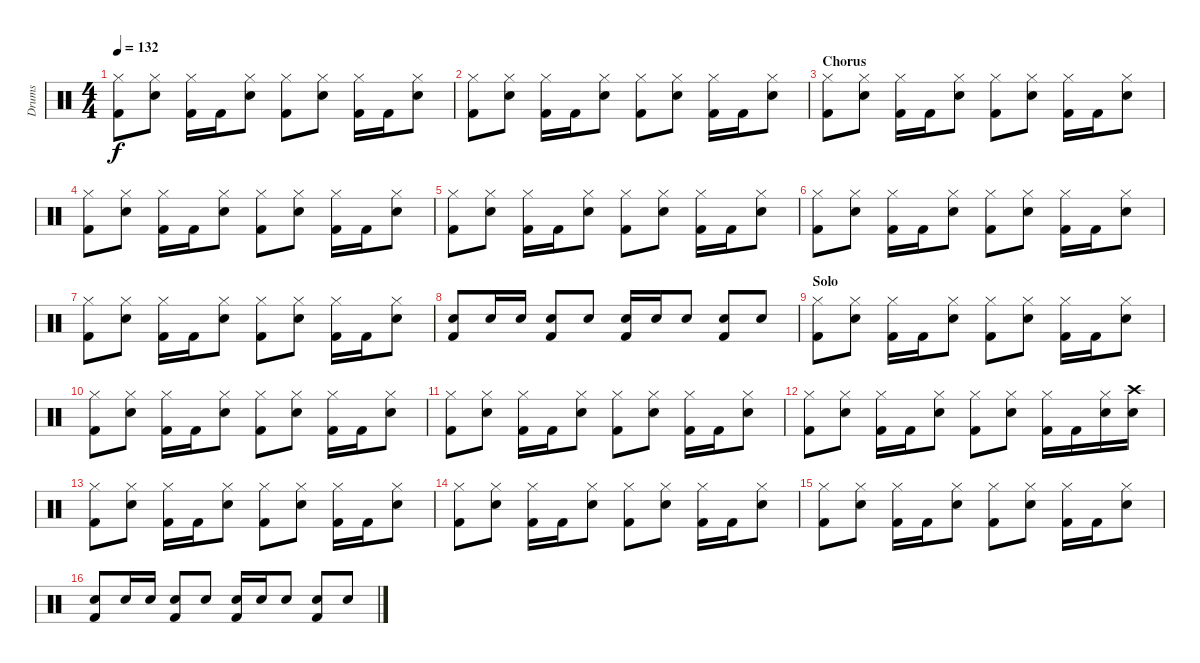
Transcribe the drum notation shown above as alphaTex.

\track ("Drums" "Drums") {instrument percussion}
\staff {score}
\articulation defaults
\ts (4 4)
\tempo 132
\clef neutral
\ks c
("Kick (hit) 2" "Hi-Hat (closed)").8{dy f} ("Snare (hit) 2" "Hi-Hat (closed)").8 ("Kick (hit) 2" "Hi-Hat (closed)").16 "Kick (hit) 2".16 ("Snare (hit) 2" "Hi-Hat (closed)").8 ("Kick (hit) 2" "Hi-Hat (closed)").8 ("Snare (hit) 2" "Hi-Hat (closed)").8 ("Kick (hit) 2" "Hi-Hat (closed)").16 "Kick (hit) 2".16 ("Snare (hit) 2" "Hi-Hat (closed)").8 |
("Kick (hit) 2" "Hi-Hat (closed)").8 ("Snare (hit) 2" "Hi-Hat (closed)").8 ("Kick (hit) 2" "Hi-Hat (closed)").16 "Kick (hit) 2".16 ("Snare (hit) 2" "Hi-Hat (closed)").8 ("Kick (hit) 2" "Hi-Hat (closed)").8 ("Snare (hit) 2" "Hi-Hat (closed)").8 ("Kick (hit) 2" "Hi-Hat (closed)").16 "Kick (hit) 2".16 ("Snare (hit) 2" "Hi-Hat (closed)").8 |
\section ("" "Chorus")
("Kick (hit) 2" "Hi-Hat (closed)").8 ("Snare (hit) 2" "Hi-Hat (closed)").8 ("Kick (hit) 2" "Hi-Hat (closed)").16 "Kick (hit) 2".16 ("Snare (hit) 2" "Hi-Hat (closed)").8 ("Kick (hit) 2" "Hi-Hat (closed)").8 ("Snare (hit) 2" "Hi-Hat (closed)").8 ("Kick (hit) 2" "Hi-Hat (closed)").16 "Kick (hit) 2".16 ("Snare (hit) 2" "Hi-Hat (closed)").8 |
("Kick (hit) 2" "Hi-Hat (closed)").8 ("Snare (hit) 2" "Hi-Hat (closed)").8 ("Kick (hit) 2" "Hi-Hat (closed)").16 "Kick (hit) 2".16 ("Snare (hit) 2" "Hi-Hat (closed)").8 ("Kick (hit) 2" "Hi-Hat (closed)").8 ("Snare (hit) 2" "Hi-Hat (closed)").8 ("Kick (hit) 2" "Hi-Hat (closed)").16 "Kick (hit) 2".16 ("Snare (hit) 2" "Hi-Hat (closed)").8 |
("Kick (hit) 2" "Hi-Hat (closed)").8 ("Snare (hit) 2" "Hi-Hat (closed)").8 ("Kick (hit) 2" "Hi-Hat (closed)").16 "Kick (hit) 2".16 ("Snare (hit) 2" "Hi-Hat (closed)").8 ("Kick (hit) 2" "Hi-Hat (closed)").8 ("Snare (hit) 2" "Hi-Hat (closed)").8 ("Kick (hit) 2" "Hi-Hat (closed)").16 "Kick (hit) 2".16 ("Snare (hit) 2" "Hi-Hat (closed)").8 |
("Kick (hit) 2" "Hi-Hat (closed)").8 ("Snare (hit) 2" "Hi-Hat (closed)").8 ("Kick (hit) 2" "Hi-Hat (closed)").16 "Kick (hit) 2".16 ("Snare (hit) 2" "Hi-Hat (closed)").8 ("Kick (hit) 2" "Hi-Hat (closed)").8 ("Snare (hit) 2" "Hi-Hat (closed)").8 ("Kick (hit) 2" "Hi-Hat (closed)").16 "Kick (hit) 2".16 ("Snare (hit) 2" "Hi-Hat (closed)").8 |
("Kick (hit) 2" "Hi-Hat (closed)").8 ("Snare (hit) 2" "Hi-Hat (closed)").8 ("Kick (hit) 2" "Hi-Hat (closed)").16 "Kick (hit) 2".16 ("Snare (hit) 2" "Hi-Hat (closed)").8 ("Kick (hit) 2" "Hi-Hat (closed)").8 ("Snare (hit) 2" "Hi-Hat (closed)").8 ("Kick (hit) 2" "Hi-Hat (closed)").16 "Kick (hit) 2".16 ("Snare (hit) 2" "Hi-Hat (closed)").8 |
("Snare (hit) 2" "Kick (hit) 2").8 "Snare (hit) 2".16 "Snare (hit) 2".16 ("Snare (hit) 2" "Kick (hit) 2").8 "Snare (hit) 2".8 ("Snare (hit) 2" "Kick (hit) 2").16 "Snare (hit) 2".16 "Snare (hit) 2".8 ("Snare (hit) 2" "Kick (hit) 2").8 "Snare (hit) 2".8 |
\section ("" "Solo")
("Kick (hit) 2" "Hi-Hat (closed)").8 ("Snare (hit) 2" "Hi-Hat (closed)").8 ("Kick (hit) 2" "Hi-Hat (closed)").16 "Kick (hit) 2".16 ("Snare (hit) 2" "Hi-Hat (closed)").8 ("Kick (hit) 2" "Hi-Hat (closed)").8 ("Snare (hit) 2" "Hi-Hat (closed)").8 ("Kick (hit) 2" "Hi-Hat (closed)").16 "Kick (hit) 2".16 ("Snare (hit) 2" "Hi-Hat (closed)").8 |
("Kick (hit) 2" "Hi-Hat (closed)").8 ("Snare (hit) 2" "Hi-Hat (closed)").8 ("Kick (hit) 2" "Hi-Hat (closed)").16 "Kick (hit) 2".16 ("Snare (hit) 2" "Hi-Hat (closed)").8 ("Kick (hit) 2" "Hi-Hat (closed)").8 ("Snare (hit) 2" "Hi-Hat (closed)").8 ("Kick (hit) 2" "Hi-Hat (closed)").16 "Kick (hit) 2".16 ("Snare (hit) 2" "Hi-Hat (closed)").8 |
("Kick (hit) 2" "Hi-Hat (closed)").8 ("Snare (hit) 2" "Hi-Hat (closed)").8 ("Kick (hit) 2" "Hi-Hat (closed)").16 "Kick (hit) 2".16 ("Snare (hit) 2" "Hi-Hat (closed)").8 ("Kick (hit) 2" "Hi-Hat (closed)").8 ("Snare (hit) 2" "Hi-Hat (closed)").8 ("Kick (hit) 2" "Hi-Hat (closed)").16 "Kick (hit) 2".16 ("Snare (hit) 2" "Hi-Hat (closed)").8 |
("Kick (hit) 2" "Hi-Hat (closed)").8 ("Snare (hit) 2" "Hi-Hat (closed)").8 ("Kick (hit) 2" "Hi-Hat (closed)").16 "Kick (hit) 2".16 ("Snare (hit) 2" "Hi-Hat (closed)").8 ("Kick (hit) 2" "Hi-Hat (closed)").8 ("Snare (hit) 2" "Hi-Hat (closed)").8 ("Kick (hit) 2" "Hi-Hat (closed)").16 "Kick (hit) 2".16 ("Snare (hit) 2" "Hi-Hat (closed)").16 ("Snare (hit) 2" "Crash high (hit)").16 |
("Kick (hit) 2" "Hi-Hat (closed)").8 ("Snare (hit) 2" "Hi-Hat (closed)").8 ("Kick (hit) 2" "Hi-Hat (closed)").16 "Kick (hit) 2".16 ("Snare (hit) 2" "Hi-Hat (closed)").8 ("Kick (hit) 2" "Hi-Hat (closed)").8 ("Snare (hit) 2" "Hi-Hat (closed)").8 ("Kick (hit) 2" "Hi-Hat (closed)").16 "Kick (hit) 2".16 ("Snare (hit) 2" "Hi-Hat (closed)").8 |
("Kick (hit) 2" "Hi-Hat (closed)").8 ("Snare (hit) 2" "Hi-Hat (closed)").8 ("Kick (hit) 2" "Hi-Hat (closed)").16 "Kick (hit) 2".16 ("Snare (hit) 2" "Hi-Hat (closed)").8 ("Kick (hit) 2" "Hi-Hat (closed)").8 ("Snare (hit) 2" "Hi-Hat (closed)").8 ("Kick (hit) 2" "Hi-Hat (closed)").16 "Kick (hit) 2".16 ("Snare (hit) 2" "Hi-Hat (closed)").8 |
("Kick (hit) 2" "Hi-Hat (closed)").8 ("Snare (hit) 2" "Hi-Hat (closed)").8 ("Kick (hit) 2" "Hi-Hat (closed)").16 "Kick (hit) 2".16 ("Snare (hit) 2" "Hi-Hat (closed)").8 ("Kick (hit) 2" "Hi-Hat (closed)").8 ("Snare (hit) 2" "Hi-Hat (closed)").8 ("Kick (hit) 2" "Hi-Hat (closed)").16 "Kick (hit) 2".16 ("Snare (hit) 2" "Hi-Hat (closed)").8 |
("Snare (hit) 2" "Kick (hit) 2").8 "Snare (hit) 2".16 "Snare (hit) 2".16 ("Snare (hit) 2" "Kick (hit) 2").8 "Snare (hit) 2".8 ("Snare (hit) 2" "Kick (hit) 2").16 "Snare (hit) 2".16 "Snare (hit) 2".8 ("Snare (hit) 2" "Kick (hit) 2").8 "Snare (hit) 2".8
